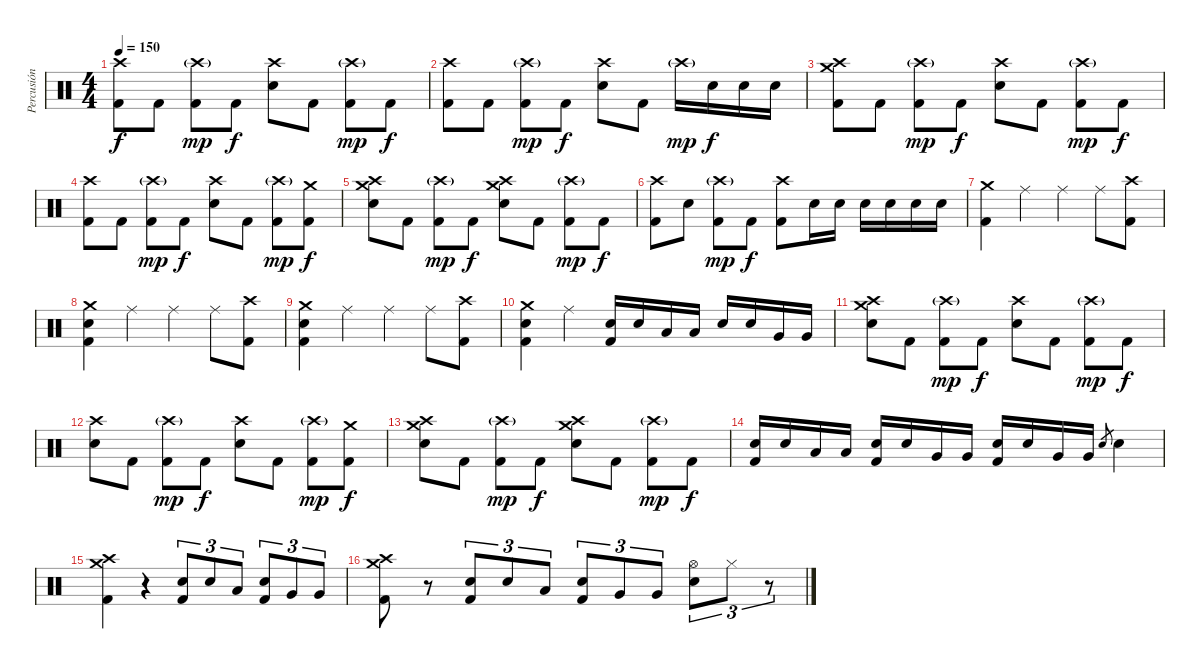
\track ("Percusión" "Percusión") {instrument percussion}
\staff {score}
\articulation defaults
\ts (4 4)
\tempo 150
\clef neutral
\ks c
("Crash high (hit)" "Kick (hit) 2").8{dy f} "Kick (hit) 2".8 ("Crash high (hit)"{g} "Kick (hit) 2").8{dy mp} "Kick (hit) 2".8{dy f} ("Crash high (hit)" "Electric Snare (hit)").8 "Kick (hit) 2".8 ("Crash high (hit)"{g} "Kick (hit) 2").8{dy mp} "Kick (hit) 2".8{dy f} |
("Crash high (hit)" "Kick (hit) 2").8 "Kick (hit) 2".8 ("Crash high (hit)"{g} "Kick (hit) 2").8{dy mp} "Kick (hit) 2".8{dy f} ("Crash high (hit)" "Electric Snare (hit)").8 "Kick (hit) 2".8 "Crash high (hit)"{g}.16{dy mp} "Electric Snare (hit)".16{dy f} "Electric Snare (hit)".16 "Electric Snare (hit)".16 |
("Crash medium (hit)" "Crash high (hit)" "Kick (hit) 2").8 "Kick (hit) 2".8 ("Crash high (hit)"{g} "Kick (hit) 2").8{dy mp} "Kick (hit) 2".8{dy f} ("Crash high (hit)" "Electric Snare (hit)").8 "Kick (hit) 2".8 ("Crash high (hit)"{g} "Kick (hit) 2").8{dy mp} "Kick (hit) 2".8{dy f} |
("Crash high (hit)" "Kick (hit) 2").8 "Kick (hit) 2".8 ("Crash high (hit)"{g} "Kick (hit) 2").8{dy mp} "Kick (hit) 2".8{dy f} ("Crash high (hit)" "Electric Snare (hit)").8 "Kick (hit) 2".8 ("Crash high (hit)"{g} "Kick (hit) 2").8{dy mp} ("Crash medium (hit)" "Kick (hit) 2").8{dy f} |
("Crash medium (hit)" "Crash high (hit)" "Electric Snare (hit)").8 "Kick (hit) 2".8 ("Crash high (hit)"{g} "Kick (hit) 2").8{dy mp} "Kick (hit) 2".8{dy f} ("Crash medium (hit)" "Crash high (hit)" "Electric Snare (hit)").8 "Kick (hit) 2".8 ("Crash high (hit)"{g} "Kick (hit) 2").8{dy mp} "Kick (hit) 2".8{dy f} |
("Crash high (hit)" "Kick (hit) 2").8 "Electric Snare (hit)".8 ("Crash high (hit)"{g} "Kick (hit) 2").8{dy mp} "Kick (hit) 2".8{dy f} ("Crash high (hit)" "Kick (hit) 2").8 "Electric Snare (hit)".16 "Electric Snare (hit)".16 "Electric Snare (hit)".16 "Electric Snare (hit)".16 "Electric Snare (hit)".16 "Electric Snare (hit)".16 |
("Crash medium (hit)" "Kick (hit) 2").4 "Ride (middle)".4 "Ride (middle)".4 "Ride (middle)".8 ("Crash high (hit)" "Kick (hit) 2").8 |
("Crash medium (hit)" "Electric Snare (hit)" "Kick (hit) 2").4 "Ride (middle)".4 "Ride (middle)".4 "Ride (middle)".8 ("Crash high (hit)" "Kick (hit) 2").8 |
("Crash medium (hit)" "Electric Snare (hit)" "Kick (hit) 2").4 "Ride (middle)".4 "Ride (middle)".4 "Ride (middle)".8 ("Crash high (hit)" "Kick (hit) 2").8 |
("Crash medium (hit)" "Electric Snare (hit)" "Kick (hit) 2").4 "Ride (middle)".4 ("Electric Snare (hit)" "Kick (hit) 2").16 "Electric Snare (hit)".16 "Low Tom (hit)".16 "Low Tom (hit)".16 "Electric Snare (hit)".16 "Electric Snare (hit)".16 "Very Low Tom (hit)".16 "Very Low Tom (hit)".16 |
("Crash medium (hit)" "Crash high (hit)" "Electric Snare (hit)").8 "Kick (hit) 2".8 ("Crash high (hit)"{g} "Kick (hit) 2").8{dy mp} "Kick (hit) 2".8{dy f} ("Crash high (hit)" "Electric Snare (hit)").8 "Kick (hit) 2".8 ("Crash high (hit)"{g} "Kick (hit) 2").8{dy mp} "Kick (hit) 2".8{dy f} |
("Crash high (hit)" "Electric Snare (hit)").8 "Kick (hit) 2".8 ("Crash high (hit)"{g} "Kick (hit) 2").8{dy mp} "Kick (hit) 2".8{dy f} ("Crash high (hit)" "Electric Snare (hit)").8 "Kick (hit) 2".8 ("Crash high (hit)"{g} "Kick (hit) 2").8{dy mp} ("Crash medium (hit)" "Kick (hit) 2").8{dy f} |
("Crash medium (hit)" "Crash high (hit)" "Electric Snare (hit)").8 "Kick (hit) 2".8 ("Crash high (hit)"{g} "Kick (hit) 2").8{dy mp} "Kick (hit) 2".8{dy f} ("Crash medium (hit)" "Crash high (hit)" "Electric Snare (hit)").8 "Kick (hit) 2".8 ("Crash high (hit)"{g} "Kick (hit) 2").8{dy mp} "Kick (hit) 2".8{dy f} |
("Electric Snare (hit)" "Kick (hit) 2").16 "Electric Snare (hit)".16 "Low Tom (hit)".16 "Low Tom (hit)".16 ("Electric Snare (hit)" "Kick (hit) 2").16 "Electric Snare (hit)".16 "Very Low Tom (hit)".16 "Very Low Tom (hit)".16 ("Electric Snare (hit)" "Kick (hit) 2").16 "Electric Snare (hit)".16 "Very Low Tom (hit)".16 "Very Low Tom (hit)".16 "Electric Snare (hit)".8{gr} "Electric Snare (hit)".4 |
("Crash medium (hit)" "Crash high (hit)" "Kick (hit) 2").4 r.4 ("Electric Snare (hit)" "Kick (hit) 2").8{tu (3 2)} "Electric Snare (hit)".8{tu (3 2)} "Low Tom (hit)".8{tu (3 2)} ("Electric Snare (hit)" "Kick (hit) 2").8{tu (3 2)} "Very Low Tom (hit)".8{tu (3 2)} "Very Low Tom (hit)".8{tu (3 2)} |
("Crash medium (hit)" "Crash high (hit)" "Kick (hit) 2").8 r.8 ("Electric Snare (hit)" "Kick (hit) 2").8{tu (3 2)} "Electric Snare (hit)".8{tu (3 2)} "Low Tom (hit)".8{tu (3 2)} ("Electric Snare (hit)" "Kick (hit) 2").8{tu (3 2)} "Very Low Tom (hit)".8{tu (3 2)} "Very Low Tom (hit)".8{tu (3 2)} ("Hi-Hat (open)" "Electric Snare (hit)").8{tu (3 2)} "Hi-Hat (closed)".8{tu (3 2)} r.8{tu (3 2)}
